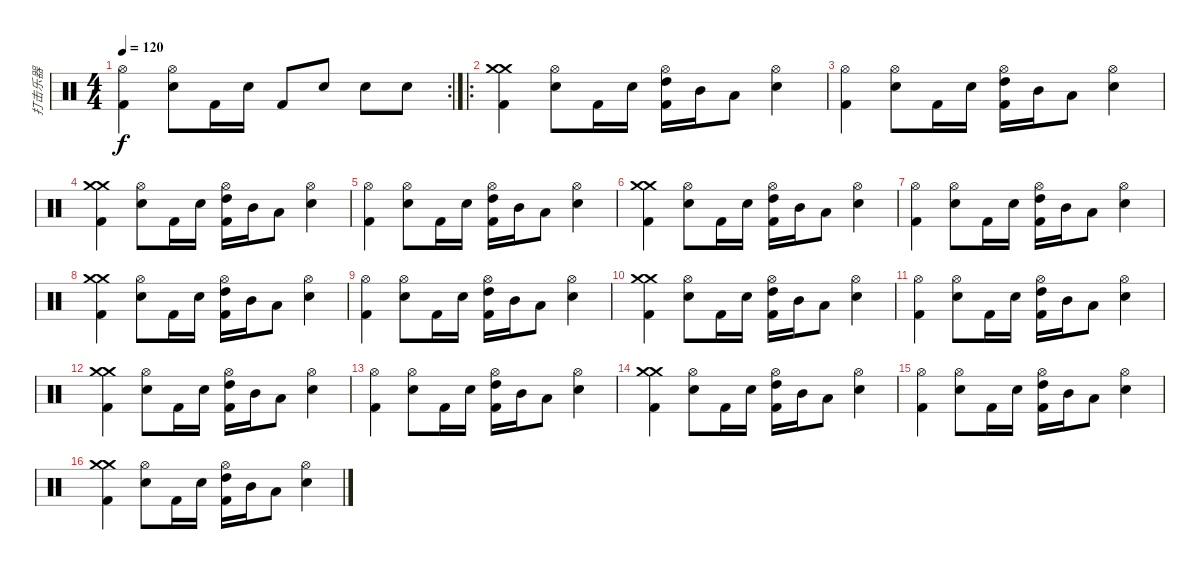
\track ("打击乐器" "打击乐器") {instrument percussion}
\staff {score}
\articulation defaults
\rc 2
\ts (4 4)
\tempo 120
\clef neutral
\ks c
("Hi-Hat (open)" "Kick (hit) 2").4{dy f} ("Hi-Hat (open)" "Snare (hit) 2").8 "Kick (hit) 2".16 "Snare (hit) 2".16 "Kick (hit) 2".8 "Snare (hit) 2".8 "Snare (hit) 2".8 "Snare (hit) 2".8 |
\ro
("Crash medium (hit)" "Crash medium (hit)" "Kick (hit) 2").4 ("Hi-Hat (open)" "Snare (hit) 2").8 "Kick (hit) 2".16 "Snare (hit) 2".16 ("Hi-Hat (open)" "High Tom (hit)" "Kick (hit) 2").16 "Mid Tom (hit)".16 "Low Tom (hit)".8 ("Hi-Hat (open)" "Snare (hit) 2").4 |
("Hi-Hat (open)" "Kick (hit) 2").4 ("Hi-Hat (open)" "Snare (hit) 2").8 "Kick (hit) 2".16 "Snare (hit) 2".16 ("Hi-Hat (open)" "High Tom (hit)" "Kick (hit) 2").16 "Mid Tom (hit)".16 "Low Tom (hit)".8 ("Hi-Hat (open)" "Snare (hit) 2").4 |
("Crash medium (hit)" "Crash medium (hit)" "Kick (hit) 2").4 ("Hi-Hat (open)" "Snare (hit) 2").8 "Kick (hit) 2".16 "Snare (hit) 2".16 ("Hi-Hat (open)" "High Tom (hit)" "Kick (hit) 2").16 "Mid Tom (hit)".16 "Low Tom (hit)".8 ("Hi-Hat (open)" "Snare (hit) 2").4 |
("Hi-Hat (open)" "Kick (hit) 2").4 ("Hi-Hat (open)" "Snare (hit) 2").8 "Kick (hit) 2".16 "Snare (hit) 2".16 ("Hi-Hat (open)" "High Tom (hit)" "Kick (hit) 2").16 "Mid Tom (hit)".16 "Low Tom (hit)".8 ("Hi-Hat (open)" "Snare (hit) 2").4 |
("Crash medium (hit)" "Crash medium (hit)" "Kick (hit) 2").4 ("Hi-Hat (open)" "Snare (hit) 2").8 "Kick (hit) 2".16 "Snare (hit) 2".16 ("Hi-Hat (open)" "High Tom (hit)" "Kick (hit) 2").16 "Mid Tom (hit)".16 "Low Tom (hit)".8 ("Hi-Hat (open)" "Snare (hit) 2").4 |
("Hi-Hat (open)" "Kick (hit) 2").4 ("Hi-Hat (open)" "Snare (hit) 2").8 "Kick (hit) 2".16 "Snare (hit) 2".16 ("Hi-Hat (open)" "High Tom (hit)" "Kick (hit) 2").16 "Mid Tom (hit)".16 "Low Tom (hit)".8 ("Hi-Hat (open)" "Snare (hit) 2").4 |
("Crash medium (hit)" "Crash medium (hit)" "Kick (hit) 2").4 ("Hi-Hat (open)" "Snare (hit) 2").8 "Kick (hit) 2".16 "Snare (hit) 2".16 ("Hi-Hat (open)" "High Tom (hit)" "Kick (hit) 2").16 "Mid Tom (hit)".16 "Low Tom (hit)".8 ("Hi-Hat (open)" "Snare (hit) 2").4 |
("Hi-Hat (open)" "Kick (hit) 2").4 ("Hi-Hat (open)" "Snare (hit) 2").8 "Kick (hit) 2".16 "Snare (hit) 2".16 ("Hi-Hat (open)" "High Tom (hit)" "Kick (hit) 2").16 "Mid Tom (hit)".16 "Low Tom (hit)".8 ("Hi-Hat (open)" "Snare (hit) 2").4 |
("Crash medium (hit)" "Crash medium (hit)" "Kick (hit) 2").4 ("Hi-Hat (open)" "Snare (hit) 2").8 "Kick (hit) 2".16 "Snare (hit) 2".16 ("Hi-Hat (open)" "High Tom (hit)" "Kick (hit) 2").16 "Mid Tom (hit)".16 "Low Tom (hit)".8 ("Hi-Hat (open)" "Snare (hit) 2").4 |
("Hi-Hat (open)" "Kick (hit) 2").4 ("Hi-Hat (open)" "Snare (hit) 2").8 "Kick (hit) 2".16 "Snare (hit) 2".16 ("Hi-Hat (open)" "High Tom (hit)" "Kick (hit) 2").16 "Mid Tom (hit)".16 "Low Tom (hit)".8 ("Hi-Hat (open)" "Snare (hit) 2").4 |
("Crash medium (hit)" "Crash medium (hit)" "Kick (hit) 2").4 ("Hi-Hat (open)" "Snare (hit) 2").8 "Kick (hit) 2".16 "Snare (hit) 2".16 ("Hi-Hat (open)" "High Tom (hit)" "Kick (hit) 2").16 "Mid Tom (hit)".16 "Low Tom (hit)".8 ("Hi-Hat (open)" "Snare (hit) 2").4 |
("Hi-Hat (open)" "Kick (hit) 2").4 ("Hi-Hat (open)" "Snare (hit) 2").8 "Kick (hit) 2".16 "Snare (hit) 2".16 ("Hi-Hat (open)" "High Tom (hit)" "Kick (hit) 2").16 "Mid Tom (hit)".16 "Low Tom (hit)".8 ("Hi-Hat (open)" "Snare (hit) 2").4 |
("Crash medium (hit)" "Crash medium (hit)" "Kick (hit) 2").4 ("Hi-Hat (open)" "Snare (hit) 2").8 "Kick (hit) 2".16 "Snare (hit) 2".16 ("Hi-Hat (open)" "High Tom (hit)" "Kick (hit) 2").16 "Mid Tom (hit)".16 "Low Tom (hit)".8 ("Hi-Hat (open)" "Snare (hit) 2").4 |
("Hi-Hat (open)" "Kick (hit) 2").4 ("Hi-Hat (open)" "Snare (hit) 2").8 "Kick (hit) 2".16 "Snare (hit) 2".16 ("Hi-Hat (open)" "High Tom (hit)" "Kick (hit) 2").16 "Mid Tom (hit)".16 "Low Tom (hit)".8 ("Hi-Hat (open)" "Snare (hit) 2").4 |
("Crash medium (hit)" "Crash medium (hit)" "Kick (hit) 2").4 ("Hi-Hat (open)" "Snare (hit) 2").8 "Kick (hit) 2".16 "Snare (hit) 2".16 ("Hi-Hat (open)" "High Tom (hit)" "Kick (hit) 2").16 "Mid Tom (hit)".16 "Low Tom (hit)".8 ("Hi-Hat (open)" "Snare (hit) 2").4
